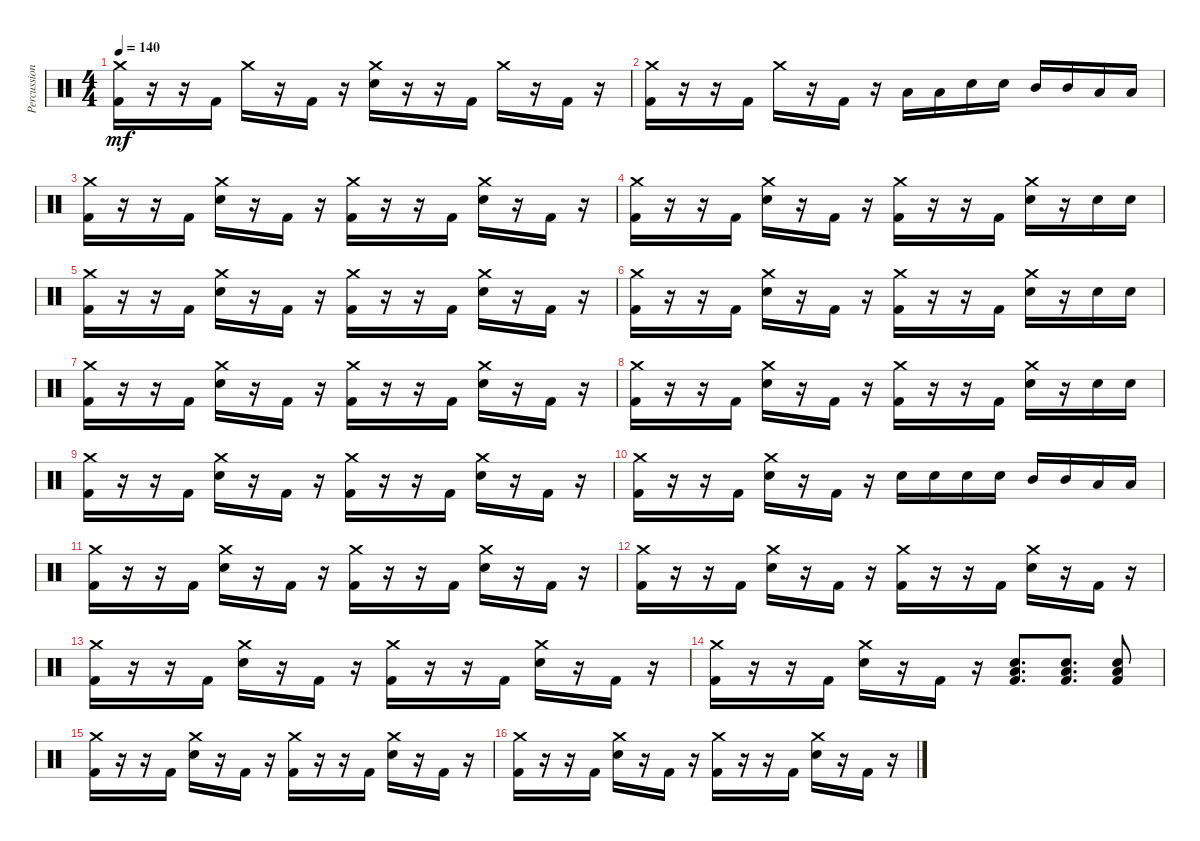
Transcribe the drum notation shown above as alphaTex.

\track ("Percussions" "Percussion") {instrument percussion}
\staff {score}
\articulation defaults
\ts (4 4)
\tempo 140
\clef neutral
\ks c
("Kick (hit) 2" "Crash medium (hit)").16{dy mf} r.16 r.16 "Kick (hit) 2".16 "Crash medium (hit)".16 r.16 "Kick (hit) 2".16 r.16 ("Electric Snare (hit)" "Crash medium (hit)").16 r.16 r.16 "Kick (hit) 2".16 "Crash medium (hit)".16 r.16 "Kick (hit) 2".16 r.16 |
("Kick (hit) 2" "Crash medium (hit)").16 r.16 r.16 "Kick (hit) 2".16 "Crash medium (hit)".16 r.16 "Kick (hit) 2".16 r.16 "Low Tom (hit)".16 "Low Tom (hit)".16 "Electric Snare (hit)".16 "Electric Snare (hit)".16 "Mid Tom (hit)".16 "Mid Tom (hit)".16 "Low Tom (hit)".16 "Low Tom (hit)".16 |
("Kick (hit) 2" "Crash medium (hit)").16 r.16 r.16 "Kick (hit) 2".16 ("Electric Snare (hit)" "Crash medium (hit)").16 r.16 "Kick (hit) 2".16 r.16 ("Kick (hit) 2" "Crash medium (hit)").16 r.16 r.16 "Kick (hit) 2".16 ("Electric Snare (hit)" "Crash medium (hit)").16 r.16 "Kick (hit) 2".16 r.16 |
("Kick (hit) 2" "Crash medium (hit)").16 r.16 r.16 "Kick (hit) 2".16 ("Electric Snare (hit)" "Crash medium (hit)").16 r.16 "Kick (hit) 2".16 r.16 ("Kick (hit) 2" "Crash medium (hit)").16 r.16 r.16 "Kick (hit) 2".16 ("Electric Snare (hit)" "Crash medium (hit)").16 r.16 "Electric Snare (hit)".16 "Electric Snare (hit)".16 |
("Kick (hit) 2" "Crash medium (hit)").16 r.16 r.16 "Kick (hit) 2".16 ("Electric Snare (hit)" "Crash medium (hit)").16 r.16 "Kick (hit) 2".16 r.16 ("Kick (hit) 2" "Crash medium (hit)").16 r.16 r.16 "Kick (hit) 2".16 ("Electric Snare (hit)" "Crash medium (hit)").16 r.16 "Kick (hit) 2".16 r.16 |
("Kick (hit) 2" "Crash medium (hit)").16 r.16 r.16 "Kick (hit) 2".16 ("Electric Snare (hit)" "Crash medium (hit)").16 r.16 "Kick (hit) 2".16 r.16 ("Kick (hit) 2" "Crash medium (hit)").16 r.16 r.16 "Kick (hit) 2".16 ("Electric Snare (hit)" "Crash medium (hit)").16 r.16 "Electric Snare (hit)".16 "Electric Snare (hit)".16 |
("Kick (hit) 2" "Crash medium (hit)").16 r.16 r.16 "Kick (hit) 2".16 ("Electric Snare (hit)" "Crash medium (hit)").16 r.16 "Kick (hit) 2".16 r.16 ("Kick (hit) 2" "Crash medium (hit)").16 r.16 r.16 "Kick (hit) 2".16 ("Electric Snare (hit)" "Crash medium (hit)").16 r.16 "Kick (hit) 2".16 r.16 |
("Kick (hit) 2" "Crash medium (hit)").16 r.16 r.16 "Kick (hit) 2".16 ("Electric Snare (hit)" "Crash medium (hit)").16 r.16 "Kick (hit) 2".16 r.16 ("Kick (hit) 2" "Crash medium (hit)").16 r.16 r.16 "Kick (hit) 2".16 ("Electric Snare (hit)" "Crash medium (hit)").16 r.16 "Electric Snare (hit)".16 "Electric Snare (hit)".16 |
("Kick (hit) 2" "Crash medium (hit)").16 r.16 r.16 "Kick (hit) 2".16 ("Electric Snare (hit)" "Crash medium (hit)").16 r.16 "Kick (hit) 2".16 r.16 ("Kick (hit) 2" "Crash medium (hit)").16 r.16 r.16 "Kick (hit) 2".16 ("Electric Snare (hit)" "Crash medium (hit)").16 r.16 "Kick (hit) 2".16 r.16 |
("Kick (hit) 2" "Crash medium (hit)").16 r.16 r.16 "Kick (hit) 2".16 ("Electric Snare (hit)" "Crash medium (hit)").16 r.16 "Kick (hit) 2".16 r.16 "Electric Snare (hit)".16 "Electric Snare (hit)".16 "Electric Snare (hit)".16 "Electric Snare (hit)".16 "Mid Tom (hit)".16 "Mid Tom (hit)".16 "Low Tom (hit)".16 "Low Tom (hit)".16 |
("Kick (hit) 2" "Crash medium (hit)").16 r.16 r.16 "Kick (hit) 2".16 ("Electric Snare (hit)" "Crash medium (hit)").16 r.16 "Kick (hit) 2".16 r.16 ("Kick (hit) 2" "Crash medium (hit)").16 r.16 r.16 "Kick (hit) 2".16 ("Electric Snare (hit)" "Crash medium (hit)").16 r.16 "Kick (hit) 2".16 r.16 |
("Kick (hit) 2" "Crash medium (hit)").16 r.16 r.16 "Kick (hit) 2".16 ("Electric Snare (hit)" "Crash medium (hit)").16 r.16 "Kick (hit) 2".16 r.16 ("Kick (hit) 2" "Crash medium (hit)").16 r.16 r.16 "Kick (hit) 2".16 ("Electric Snare (hit)" "Crash medium (hit)").16 r.16 "Kick (hit) 2".16 r.16 |
("Kick (hit) 2" "Crash medium (hit)").16 r.16 r.16 "Kick (hit) 2".16 ("Electric Snare (hit)" "Crash medium (hit)").16 r.16 "Kick (hit) 2".16 r.16 ("Kick (hit) 2" "Crash medium (hit)").16 r.16 r.16 "Kick (hit) 2".16 ("Electric Snare (hit)" "Crash medium (hit)").16 r.16 "Kick (hit) 2".16 r.16 |
("Kick (hit) 2" "Crash medium (hit)").16 r.16 r.16 "Kick (hit) 2".16 ("Electric Snare (hit)" "Crash medium (hit)").16 r.16 "Kick (hit) 2".16 r.16 ("Kick (hit) 2" "Electric Snare (hit)" "Low Tom (hit)").8{d} ("Kick (hit) 2" "Electric Snare (hit)" "Low Tom (hit)").8{d} ("Kick (hit) 2" "Electric Snare (hit)" "Low Tom (hit)").8 |
("Kick (hit) 2" "Crash medium (hit)").16 r.16 r.16 "Kick (hit) 2".16 ("Electric Snare (hit)" "Crash medium (hit)").16 r.16 "Kick (hit) 2".16 r.16 ("Kick (hit) 2" "Crash medium (hit)").16 r.16 r.16 "Kick (hit) 2".16 ("Electric Snare (hit)" "Crash medium (hit)").16 r.16 "Kick (hit) 2".16 r.16 |
("Kick (hit) 2" "Crash medium (hit)").16 r.16 r.16 "Kick (hit) 2".16 ("Electric Snare (hit)" "Crash medium (hit)").16 r.16 "Kick (hit) 2".16 r.16 ("Kick (hit) 2" "Crash medium (hit)").16 r.16 r.16 "Kick (hit) 2".16 ("Electric Snare (hit)" "Crash medium (hit)").16 r.16 "Kick (hit) 2".16 r.16
